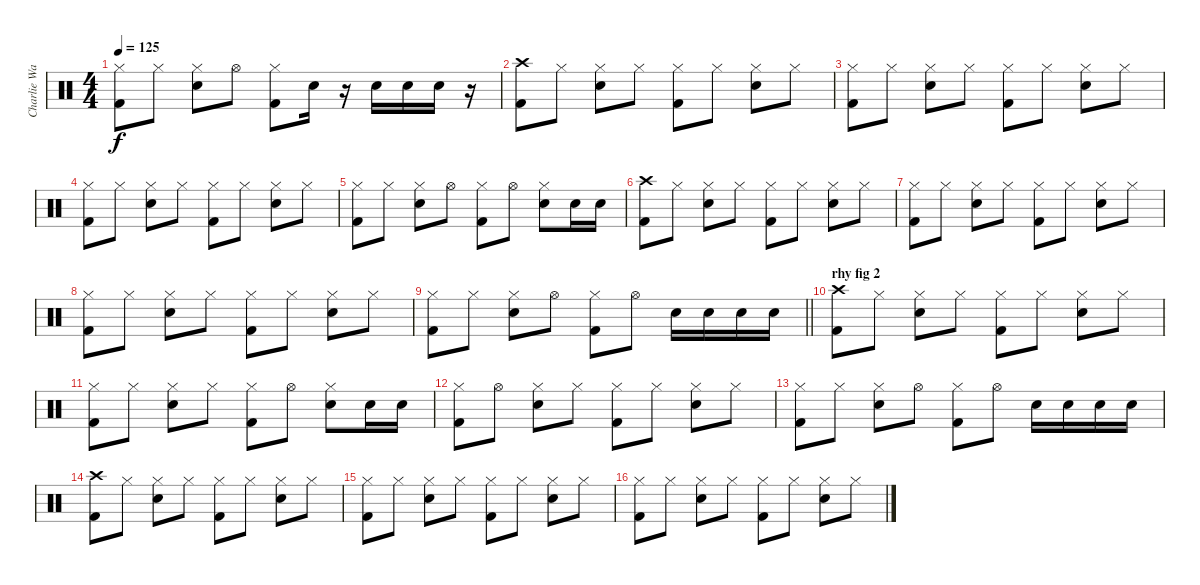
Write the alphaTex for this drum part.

\track ("Charlie Watson" "Charlie Wa") {instrument percussion}
\staff {score}
\articulation defaults
\ts (4 4)
\tempo 125
\clef neutral
\ks c
("Hi-Hat (closed)" "Kick (hit) 2").8{dy f} "Hi-Hat (closed)".8 ("Hi-Hat (closed)" "Snare (hit) 2").8 "Hi-Hat (open)".8 ("Hi-Hat (closed)" "Kick (hit) 2").8 "Snare (hit) 2".16 r.16 "Snare (hit) 2".16 "Snare (hit) 2".16 "Snare (hit) 2".16 r.16 |
("Crash high (hit)" "Kick (hit) 2").8 "Hi-Hat (closed)".8 ("Hi-Hat (closed)" "Snare (hit) 2").8 "Hi-Hat (closed)".8 ("Hi-Hat (closed)" "Kick (hit) 2").8 "Hi-Hat (closed)".8 ("Hi-Hat (closed)" "Snare (hit) 2").8 "Hi-Hat (closed)".8 |
("Hi-Hat (closed)" "Kick (hit) 2").8 "Hi-Hat (closed)".8 ("Hi-Hat (closed)" "Snare (hit) 2").8 "Hi-Hat (closed)".8 ("Hi-Hat (closed)" "Kick (hit) 2").8 "Hi-Hat (closed)".8 ("Hi-Hat (closed)" "Snare (hit) 2").8 "Hi-Hat (closed)".8 |
("Hi-Hat (closed)" "Kick (hit) 2").8 "Hi-Hat (closed)".8 ("Hi-Hat (closed)" "Snare (hit) 2").8 "Hi-Hat (closed)".8 ("Hi-Hat (closed)" "Kick (hit) 2").8 "Hi-Hat (closed)".8 ("Hi-Hat (closed)" "Snare (hit) 2").8 "Hi-Hat (closed)".8 |
("Hi-Hat (closed)" "Kick (hit) 2").8 "Hi-Hat (closed)".8 ("Hi-Hat (closed)" "Snare (hit) 2").8 "Hi-Hat (open)".8 ("Hi-Hat (closed)" "Kick (hit) 2").8 "Hi-Hat (open)".8 ("Hi-Hat (closed)" "Snare (hit) 2").8 "Snare (hit) 2".16 "Snare (hit) 2".16 |
("Crash high (hit)" "Kick (hit) 2").8 "Hi-Hat (closed)".8 ("Hi-Hat (closed)" "Snare (hit) 2").8 "Hi-Hat (closed)".8 ("Hi-Hat (closed)" "Kick (hit) 2").8 "Hi-Hat (closed)".8 ("Hi-Hat (closed)" "Snare (hit) 2").8 "Hi-Hat (closed)".8 |
("Hi-Hat (closed)" "Kick (hit) 2").8 "Hi-Hat (closed)".8 ("Hi-Hat (closed)" "Snare (hit) 2").8 "Hi-Hat (closed)".8 ("Hi-Hat (closed)" "Kick (hit) 2").8 "Hi-Hat (closed)".8 ("Hi-Hat (closed)" "Snare (hit) 2").8 "Hi-Hat (closed)".8 |
("Hi-Hat (closed)" "Kick (hit) 2").8 "Hi-Hat (closed)".8 ("Hi-Hat (closed)" "Snare (hit) 2").8 "Hi-Hat (closed)".8 ("Hi-Hat (closed)" "Kick (hit) 2").8 "Hi-Hat (closed)".8 ("Hi-Hat (closed)" "Snare (hit) 2").8 "Hi-Hat (closed)".8 |
\barLineRight lightlight
("Hi-Hat (closed)" "Kick (hit) 2").8 "Hi-Hat (closed)".8 ("Hi-Hat (closed)" "Snare (hit) 2").8 "Hi-Hat (open)".8 ("Hi-Hat (closed)" "Kick (hit) 2").8 "Hi-Hat (open)".8 "Snare (hit) 2".16 "Snare (hit) 2".16 "Snare (hit) 2".16 "Snare (hit) 2".16 |
\section ("" "rhy fig 2")
("Crash high (hit)" "Kick (hit) 2").8 "Hi-Hat (closed)".8 ("Hi-Hat (closed)" "Snare (hit) 2").8 "Hi-Hat (closed)".8 ("Hi-Hat (closed)" "Kick (hit) 2").8 "Hi-Hat (closed)".8 ("Hi-Hat (closed)" "Snare (hit) 2").8 "Hi-Hat (closed)".8 |
("Hi-Hat (closed)" "Kick (hit) 2").8 "Hi-Hat (closed)".8 ("Hi-Hat (closed)" "Snare (hit) 2").8 "Hi-Hat (closed)".8 ("Hi-Hat (closed)" "Kick (hit) 2").8 "Hi-Hat (open)".8 ("Hi-Hat (closed)" "Snare (hit) 2").8 "Snare (hit) 2".16 "Snare (hit) 2".16 |
("Hi-Hat (closed)" "Kick (hit) 2").8 "Hi-Hat (open)".8 ("Hi-Hat (closed)" "Snare (hit) 2").8 "Hi-Hat (closed)".8 ("Hi-Hat (closed)" "Kick (hit) 2").8 "Hi-Hat (closed)".8 ("Hi-Hat (closed)" "Snare (hit) 2").8 "Hi-Hat (closed)".8 |
("Hi-Hat (closed)" "Kick (hit) 2").8 "Hi-Hat (closed)".8 ("Hi-Hat (closed)" "Snare (hit) 2").8 "Hi-Hat (open)".8 ("Hi-Hat (closed)" "Kick (hit) 2").8 "Hi-Hat (open)".8 "Snare (hit) 2".16 "Snare (hit) 2".16 "Snare (hit) 2".16 "Snare (hit) 2".16 |
("Crash high (hit)" "Kick (hit) 2").8 "Hi-Hat (closed)".8 ("Hi-Hat (closed)" "Snare (hit) 2").8 "Hi-Hat (closed)".8 ("Hi-Hat (closed)" "Kick (hit) 2").8 "Hi-Hat (closed)".8 ("Hi-Hat (closed)" "Snare (hit) 2").8 "Hi-Hat (closed)".8 |
("Hi-Hat (closed)" "Kick (hit) 2").8 "Hi-Hat (closed)".8 ("Hi-Hat (closed)" "Snare (hit) 2").8 "Hi-Hat (closed)".8 ("Hi-Hat (closed)" "Kick (hit) 2").8 "Hi-Hat (closed)".8 ("Hi-Hat (closed)" "Snare (hit) 2").8 "Hi-Hat (closed)".8 |
("Hi-Hat (closed)" "Kick (hit) 2").8 "Hi-Hat (closed)".8 ("Hi-Hat (closed)" "Snare (hit) 2").8 "Hi-Hat (closed)".8 ("Hi-Hat (closed)" "Kick (hit) 2").8 "Hi-Hat (closed)".8 ("Hi-Hat (closed)" "Snare (hit) 2").8 "Hi-Hat (closed)".8
